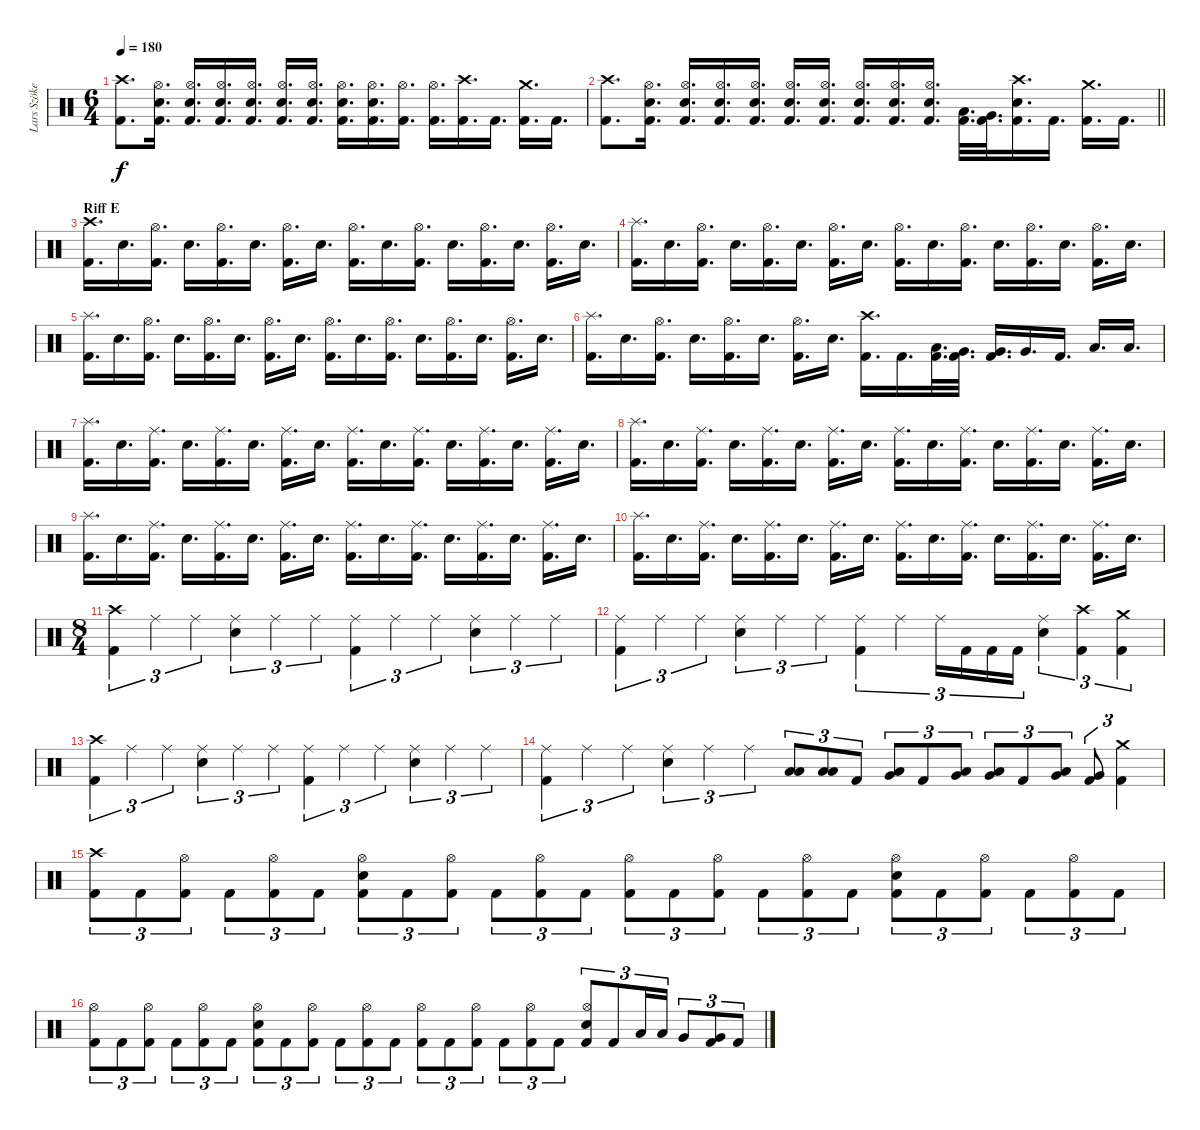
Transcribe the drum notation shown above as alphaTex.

\track ("Lars Szöke" "Lars Szöke") {instrument percussion}
\staff {score}
\articulation defaults
\ts (6 4)
\tempo 180
\clef neutral
\ks c
("Crash high (hit)" "Kick (hit) 2").8{d dy f} ("Hi-Hat (open)" "Snare (hit) 2" "Kick (hit) 2").16{d} ("Hi-Hat (open)" "Snare (hit) 2" "Kick (hit) 2").16{d} ("Hi-Hat (open)" "Snare (hit) 2" "Kick (hit) 2").16{d} ("Hi-Hat (open)" "Snare (hit) 2" "Kick (hit) 2").16{d} ("Hi-Hat (open)" "Snare (hit) 2" "Kick (hit) 2").16{d} ("Hi-Hat (open)" "Snare (hit) 2" "Kick (hit) 2").16{d} ("Hi-Hat (open)" "Snare (hit) 2" "Kick (hit) 2").16{d} ("Hi-Hat (open)" "Snare (hit) 2" "Kick (hit) 2").16{d} ("Hi-Hat (open)" "Kick (hit) 2").16{d} ("Hi-Hat (open)" "Kick (hit) 2").16{d} ("Crash high (hit)" "Kick (hit) 2").16{d} "Kick (hit) 2".16{d} ("Crash medium (hit)" "Kick (hit) 2").16{d} "Kick (hit) 2".16{d} |
\barLineRight lightlight
("Crash high (hit)" "Kick (hit) 2").8{d} ("Hi-Hat (open)" "Snare (hit) 2" "Kick (hit) 2").16{d} ("Hi-Hat (open)" "Snare (hit) 2" "Kick (hit) 2").16{d} ("Hi-Hat (open)" "Snare (hit) 2" "Kick (hit) 2").16{d} ("Hi-Hat (open)" "Snare (hit) 2" "Kick (hit) 2").16{d} ("Hi-Hat (open)" "Snare (hit) 2" "Kick (hit) 2").16{d} ("Hi-Hat (open)" "Snare (hit) 2" "Kick (hit) 2").16{d} ("Hi-Hat (open)" "Snare (hit) 2" "Kick (hit) 2").16{d} ("Hi-Hat (open)" "Snare (hit) 2" "Kick (hit) 2").16{d} ("Hi-Hat (open)" "Snare (hit) 2" "Kick (hit) 2").16{d} ("Low Tom (hit)" "Kick (hit) 2").32{d} ("Very Low Tom (hit)" "Kick (hit) 2").32{d} ("Crash high (hit)" "Snare (hit) 2" "Kick (hit) 2").16{d} "Kick (hit) 2".16{d} ("Crash medium (hit)" "Kick (hit) 2").16{d} "Kick (hit) 2".16{d} |
\section ("" "Riff E")
("Crash high (hit)" "Kick (hit) 2").16{d} "Snare (hit) 2".16{d} ("Hi-Hat (open)" "Kick (hit) 2").16{d} "Snare (hit) 2".16{d} ("Hi-Hat (open)" "Kick (hit) 2").16{d} "Snare (hit) 2".16{d} ("Hi-Hat (open)" "Kick (hit) 2").16{d} "Snare (hit) 2".16{d} ("Hi-Hat (open)" "Kick (hit) 2").16{d} "Snare (hit) 2".16{d} ("Hi-Hat (open)" "Kick (hit) 2").16{d} "Snare (hit) 2".16{d} ("Hi-Hat (open)" "Kick (hit) 2").16{d} "Snare (hit) 2".16{d} ("Hi-Hat (open)" "Kick (hit) 2").16{d} "Snare (hit) 2".16{d} |
("Splash (hit)" "Kick (hit) 2").16{d} "Snare (hit) 2".16{d} ("Hi-Hat (open)" "Kick (hit) 2").16{d} "Snare (hit) 2".16{d} ("Hi-Hat (open)" "Kick (hit) 2").16{d} "Snare (hit) 2".16{d} ("Hi-Hat (open)" "Kick (hit) 2").16{d} "Snare (hit) 2".16{d} ("Hi-Hat (open)" "Kick (hit) 2").16{d} "Snare (hit) 2".16{d} ("Hi-Hat (open)" "Kick (hit) 2").16{d} "Snare (hit) 2".16{d} ("Hi-Hat (open)" "Kick (hit) 2").16{d} "Snare (hit) 2".16{d} ("Hi-Hat (open)" "Kick (hit) 2").16{d} "Snare (hit) 2".16{d} |
("Splash (hit)" "Kick (hit) 2").16{d} "Snare (hit) 2".16{d} ("Hi-Hat (open)" "Kick (hit) 2").16{d} "Snare (hit) 2".16{d} ("Hi-Hat (open)" "Kick (hit) 2").16{d} "Snare (hit) 2".16{d} ("Hi-Hat (open)" "Kick (hit) 2").16{d} "Snare (hit) 2".16{d} ("Hi-Hat (open)" "Kick (hit) 2").16{d} "Snare (hit) 2".16{d} ("Hi-Hat (open)" "Kick (hit) 2").16{d} "Snare (hit) 2".16{d} ("Hi-Hat (open)" "Kick (hit) 2").16{d} "Snare (hit) 2".16{d} ("Hi-Hat (open)" "Kick (hit) 2").16{d} "Snare (hit) 2".16{d} |
("Splash (hit)" "Kick (hit) 2").16{d} "Snare (hit) 2".16{d} ("Hi-Hat (open)" "Kick (hit) 2").16{d} "Snare (hit) 2".16{d} ("Hi-Hat (open)" "Kick (hit) 2").16{d} "Snare (hit) 2".16{d} ("Hi-Hat (open)" "Kick (hit) 2").16{d} "Snare (hit) 2".16{d} ("Crash high (hit)" "Kick (hit) 2").16{d} "Kick (hit) 2".16{d} ("Low Tom (hit)" "Kick (hit) 2").32{d} ("Very Low Tom (hit)" "Kick (hit) 2").32{d} ("Very Low Tom (hit)" "Kick (hit) 2").16{d} "Very Low Tom (hit)".16{d} "Kick (hit) 2".16{d} "Low Floor Tom (hit)".16{d} "Low Floor Tom (hit)".16{d} |
("Splash (hit)" "Kick (hit) 2").16{d} "Snare (hit) 2".16{d} ("Ride (middle)" "Kick (hit) 2").16{d} "Snare (hit) 2".16{d} ("Ride (middle)" "Kick (hit) 2").16{d} "Snare (hit) 2".16{d} ("Ride (middle)" "Kick (hit) 2").16{d} "Snare (hit) 2".16{d} ("Ride (middle)" "Kick (hit) 2").16{d} "Snare (hit) 2".16{d} ("Ride (middle)" "Kick (hit) 2").16{d} "Snare (hit) 2".16{d} ("Ride (middle)" "Kick (hit) 2").16{d} "Snare (hit) 2".16{d} ("Ride (middle)" "Kick (hit) 2").16{d} "Snare (hit) 2".16{d} |
("Splash (hit)" "Kick (hit) 2").16{d} "Snare (hit) 2".16{d} ("Ride (middle)" "Kick (hit) 2").16{d} "Snare (hit) 2".16{d} ("Ride (middle)" "Kick (hit) 2").16{d} "Snare (hit) 2".16{d} ("Ride (middle)" "Kick (hit) 2").16{d} "Snare (hit) 2".16{d} ("Ride (middle)" "Kick (hit) 2").16{d} "Snare (hit) 2".16{d} ("Ride (middle)" "Kick (hit) 2").16{d} "Snare (hit) 2".16{d} ("Ride (middle)" "Kick (hit) 2").16{d} "Snare (hit) 2".16{d} ("Ride (middle)" "Kick (hit) 2").16{d} "Snare (hit) 2".16{d} |
("Splash (hit)" "Kick (hit) 2").16{d} "Snare (hit) 2".16{d} ("Ride (middle)" "Kick (hit) 2").16{d} "Snare (hit) 2".16{d} ("Ride (middle)" "Kick (hit) 2").16{d} "Snare (hit) 2".16{d} ("Ride (middle)" "Kick (hit) 2").16{d} "Snare (hit) 2".16{d} ("Ride (middle)" "Kick (hit) 2").16{d} "Snare (hit) 2".16{d} ("Ride (middle)" "Kick (hit) 2").16{d} "Snare (hit) 2".16{d} ("Ride (middle)" "Kick (hit) 2").16{d} "Snare (hit) 2".16{d} ("Ride (middle)" "Kick (hit) 2").16{d} "Snare (hit) 2".16{d} |
("Splash (hit)" "Kick (hit) 2").16{d} "Snare (hit) 2".16{d} ("Ride (middle)" "Kick (hit) 2").16{d} "Snare (hit) 2".16{d} ("Ride (middle)" "Kick (hit) 2").16{d} "Snare (hit) 2".16{d} ("Ride (middle)" "Kick (hit) 2").16{d} "Snare (hit) 2".16{d} ("Ride (middle)" "Kick (hit) 2").16{d} "Snare (hit) 2".16{d} ("Ride (middle)" "Kick (hit) 2").16{d} "Snare (hit) 2".16{d} ("Ride (middle)" "Kick (hit) 2").16{d} "Snare (hit) 2".16{d} ("Ride (middle)" "Kick (hit) 2").16{d} "Snare (hit) 2".16{d} |
\ts (8 4)
("Crash high (hit)" "Kick (hit) 2").4{tu (3 2)} "Ride (middle)".4{tu (3 2)} "Ride (middle)".4{tu (3 2)} ("Ride (middle)" "Snare (hit) 2").4{tu (3 2)} "Ride (middle)".4{tu (3 2)} "Ride (middle)".4{tu (3 2)} ("Ride (middle)" "Kick (hit) 2").4{tu (3 2)} "Ride (middle)".4{tu (3 2)} "Ride (middle)".4{tu (3 2)} ("Ride (middle)" "Snare (hit) 2").4{tu (3 2)} "Ride (middle)".4{tu (3 2)} "Ride (middle)".4{tu (3 2)} |
("Ride (middle)" "Kick (hit) 2").4{tu (3 2)} "Ride (middle)".4{tu (3 2)} "Ride (middle)".4{tu (3 2)} ("Ride (middle)" "Snare (hit) 2").4{tu (3 2)} "Ride (middle)".4{tu (3 2)} "Ride (middle)".4{tu (3 2)} ("Ride (middle)" "Kick (hit) 2").4{tu (3 2)} "Ride (middle)".4{tu (3 2)} "Ride (middle)".16{tu (3 2)} "Kick (hit) 2".16{tu (3 2)} "Kick (hit) 2".16{tu (3 2)} "Kick (hit) 2".16{tu (3 2)} ("Ride (middle)" "Snare (hit) 2").4{tu (3 2)} ("Crash high (hit)" "Kick (hit) 2").4{tu (3 2)} ("Crash medium (hit)" "Kick (hit) 2").4{tu (3 2)} |
("Crash high (hit)" "Kick (hit) 2").4{tu (3 2)} "Ride (middle)".4{tu (3 2)} "Ride (middle)".4{tu (3 2)} ("Ride (middle)" "Snare (hit) 2").4{tu (3 2)} "Ride (middle)".4{tu (3 2)} "Ride (middle)".4{tu (3 2)} ("Ride (middle)" "Kick (hit) 2").4{tu (3 2)} "Ride (middle)".4{tu (3 2)} "Ride (middle)".4{tu (3 2)} ("Ride (middle)" "Snare (hit) 2").4{tu (3 2)} "Ride (middle)".4{tu (3 2)} "Ride (middle)".4{tu (3 2)} |
("Ride (middle)" "Kick (hit) 2").4{tu (3 2)} "Ride (middle)".4{tu (3 2)} "Ride (middle)".4{tu (3 2)} ("Ride (middle)" "Snare (hit) 2").4{tu (3 2)} "Ride (middle)".4{tu (3 2)} "Ride (middle)".4{tu (3 2)} ("Low Tom (hit)" "Low Floor Tom (hit)").8{tu (3 2)} ("Low Tom (hit)" "Low Floor Tom (hit)").8{tu (3 2)} "Kick (hit) 2".8{tu (3 2)} ("Very Low Tom (hit)" "Low Floor Tom (hit)").8{tu (3 2)} "Kick (hit) 2".8{tu (3 2)} ("Very Low Tom (hit)" "Low Floor Tom (hit)").8{tu (3 2)} ("Very Low Tom (hit)" "Low Floor Tom (hit)").8{tu (3 2)} "Kick (hit) 2".8{tu (3 2)} ("Very Low Tom (hit)" "Low Floor Tom (hit)").8{tu (3 2)} ("Very Low Tom (hit)" "Kick (hit) 2").8{tu (3 2)} ("Crash medium (hit)" "Kick (hit) 2").4{tu (3 2)} |
("Crash high (hit)" "Kick (hit) 2").8{tu (3 2)} "Kick (hit) 2".8{tu (3 2)} ("Hi-Hat (open)" "Kick (hit) 2").8{tu (3 2)} "Kick (hit) 2".8{tu (3 2)} ("Hi-Hat (open)" "Kick (hit) 2").8{tu (3 2)} "Kick (hit) 2".8{tu (3 2)} ("Hi-Hat (open)" "Snare (hit) 2" "Kick (hit) 2").8{tu (3 2)} "Kick (hit) 2".8{tu (3 2)} ("Hi-Hat (open)" "Kick (hit) 2").8{tu (3 2)} "Kick (hit) 2".8{tu (3 2)} ("Hi-Hat (open)" "Kick (hit) 2").8{tu (3 2)} "Kick (hit) 2".8{tu (3 2)} ("Hi-Hat (open)" "Kick (hit) 2").8{tu (3 2)} "Kick (hit) 2".8{tu (3 2)} ("Hi-Hat (open)" "Kick (hit) 2").8{tu (3 2)} "Kick (hit) 2".8{tu (3 2)} ("Hi-Hat (open)" "Kick (hit) 2").8{tu (3 2)} "Kick (hit) 2".8{tu (3 2)} ("Hi-Hat (open)" "Snare (hit) 2" "Kick (hit) 2").8{tu (3 2)} "Kick (hit) 2".8{tu (3 2)} ("Hi-Hat (open)" "Kick (hit) 2").8{tu (3 2)} "Kick (hit) 2".8{tu (3 2)} ("Hi-Hat (open)" "Kick (hit) 2").8{tu (3 2)} "Kick (hit) 2".8{tu (3 2)} |
("Hi-Hat (open)" "Kick (hit) 2").8{tu (3 2)} "Kick (hit) 2".8{tu (3 2)} ("Hi-Hat (open)" "Kick (hit) 2").8{tu (3 2)} "Kick (hit) 2".8{tu (3 2)} ("Hi-Hat (open)" "Kick (hit) 2").8{tu (3 2)} "Kick (hit) 2".8{tu (3 2)} ("Hi-Hat (open)" "Snare (hit) 2" "Kick (hit) 2").8{tu (3 2)} "Kick (hit) 2".8{tu (3 2)} ("Hi-Hat (open)" "Kick (hit) 2").8{tu (3 2)} "Kick (hit) 2".8{tu (3 2)} ("Hi-Hat (open)" "Kick (hit) 2").8{tu (3 2)} "Kick (hit) 2".8{tu (3 2)} ("Hi-Hat (open)" "Kick (hit) 2").8{tu (3 2)} "Kick (hit) 2".8{tu (3 2)} ("Hi-Hat (open)" "Kick (hit) 2").8{tu (3 2)} "Kick (hit) 2".8{tu (3 2)} ("Hi-Hat (open)" "Kick (hit) 2").8{tu (3 2)} "Kick (hit) 2".8{tu (3 2)} ("Hi-Hat (open)" "Snare (hit) 2" "Kick (hit) 2").8{tu (3 2)} "Kick (hit) 2".8{tu (3 2)} "Low Tom (hit)".16{tu (3 2)} "Low Tom (hit)".16{tu (3 2)} "Very Low Tom (hit)".8{tu (3 2)} ("Very Low Tom (hit)" "Kick (hit) 2").8{tu (3 2)} "Kick (hit) 2".8{tu (3 2)}
